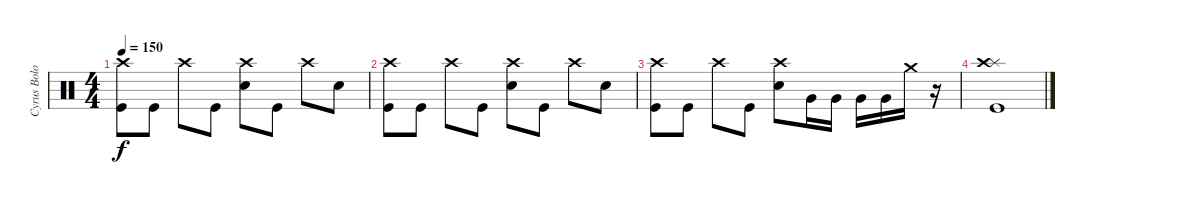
\track ("Cyrus Bolooki - Drums" "Cyrus Bolo") {instrument percussion}
\staff {score}
\articulation defaults
\ts (4 4)
\tempo 150
\clef neutral
\ks c
("Crash high (hit)" "Kick (hit)").8{dy f} "Kick (hit)".8 "Crash high (hit)".8 "Kick (hit)".8 ("Crash high (hit)" "Electric Snare (hit)").8 "Kick (hit)".8 "Crash high (hit)".8 "Electric Snare (hit)".8 |
("Crash high (hit)" "Kick (hit)").8 "Kick (hit)".8 "Crash high (hit)".8 "Kick (hit)".8 ("Crash high (hit)" "Electric Snare (hit)").8 "Kick (hit)".8 "Crash high (hit)".8 "Electric Snare (hit)".8 |
("Crash high (hit)" "Kick (hit)").8 "Kick (hit)".8 "Crash high (hit)".8 "Kick (hit)".8 ("Crash high (hit)" "Electric Snare (hit)").8 "Very Low Tom (hit)".16 "Very Low Tom (hit)".16 "Very Low Tom (hit)".16 "Very Low Tom (hit)".16 "Crash medium (hit)".16 r.16 |
("Splash (hit)" "Crash high (hit)" "Kick (hit)").1
